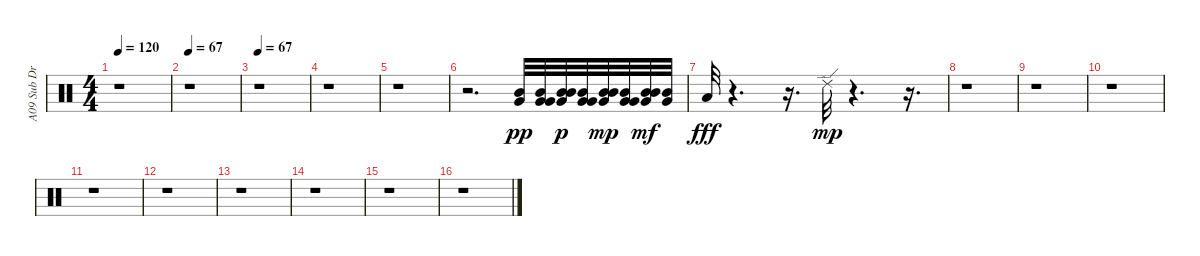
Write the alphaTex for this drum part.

\track ("A09 Sub Drums" "A09 Sub Dr") {instrument percussion}
\staff {score}
\articulation defaults
\ts (4 4)
\tempo 120
\clef neutral
\ks c
r.1{dy pp} |
\tempo 67
r.1 |
\tempo 67
r.1 |
r.1 |
r.1 |
r.2{d} ("Very Low Tom (hit)" "Mid Tom (hit)").32 ("Very Low Tom (hit)" "Mid Tom (hit)" "Very Low Tom (hit)").32 ("Mid Tom (hit)" "Very Low Tom (hit)" "Mid Tom (hit)").32{dy p} ("Very Low Tom (hit)" "Mid Tom (hit)" "Very Low Tom (hit)").32 ("Mid Tom (hit)" "Very Low Tom (hit)" "Mid Tom (hit)").32{dy mp} ("Very Low Tom (hit)" "Mid Tom (hit)" "Very Low Tom (hit)").32 ("Mid Tom (hit)" "Very Low Tom (hit)" "Mid Tom (hit)").32{dy mf} ("Very Low Tom (hit)" "Mid Tom (hit)").32 |
"Low Floor Tom (hit)".32{dy fff} r.4{d} r.16{d} "Ride (edge) 2".32{dy mp} r.4{d} r.16{d} |
r.1 |
r.1 |
r.1 |
r.1 |
r.1 |
r.1 |
r.1 |
r.1 |
r.1
